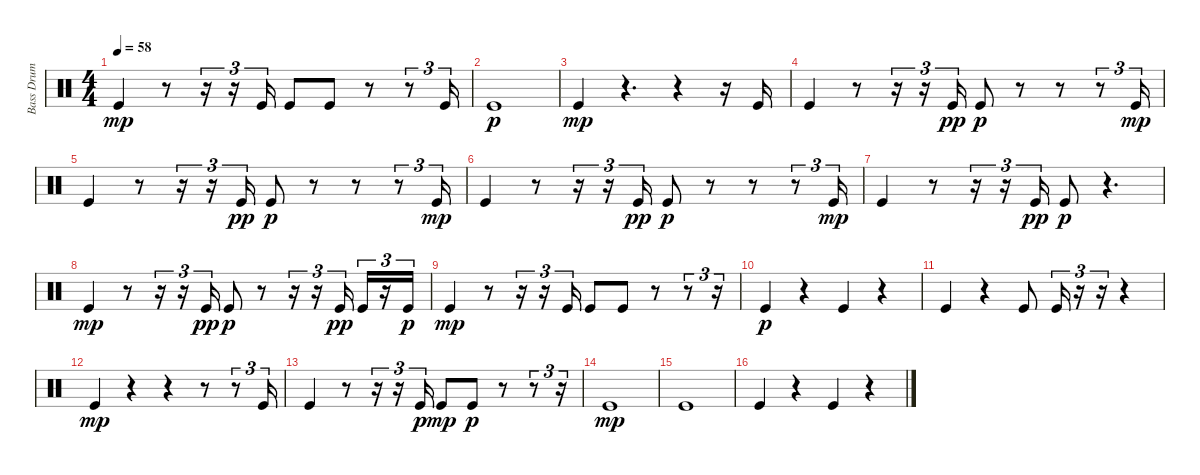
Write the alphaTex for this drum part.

\track ("Bass Drum" "Bass Drum") {instrument percussion}
\staff {score}
\articulation defaults
\ts (4 4)
\tempo 58
\clef neutral
\ks c "Kick (hit)".4{dy mp}
r.8 r.16{tu (3 2)} r.16{tu (3 2)} "Kick (hit)".16{tu (3 2)} "Kick (hit)".8 "Kick (hit)".8 r.8 r.8{tu (3 2)} "Kick (hit)".16{tu (3 2)} |
"Kick (hit)".1{dy p} |
"Kick (hit)".4{dy mp} r.4{d} r.4 r.16 "Kick (hit)".16 |
"Kick (hit)".4 r.8 r.16{tu (3 2)} r.16{tu (3 2)} "Kick (hit)".16{tu (3 2) dy pp} "Kick (hit)".8{dy p} r.8 r.8 r.8{tu (3 2)} "Kick (hit)".16{tu (3 2) dy mp} |
"Kick (hit)".4 r.8 r.16{tu (3 2)} r.16{tu (3 2)} "Kick (hit)".16{tu (3 2) dy pp} "Kick (hit)".8{dy p} r.8 r.8 r.8{tu (3 2)} "Kick (hit)".16{tu (3 2) dy mp} |
"Kick (hit)".4 r.8 r.16{tu (3 2)} r.16{tu (3 2)} "Kick (hit)".16{tu (3 2) dy pp} "Kick (hit)".8{dy p} r.8 r.8 r.8{tu (3 2)} "Kick (hit)".16{tu (3 2) dy mp} |
"Kick (hit)".4 r.8 r.16{tu (3 2)} r.16{tu (3 2)} "Kick (hit)".16{tu (3 2) dy pp} "Kick (hit)".8{dy p} r.4{d} |
"Kick (hit)".4{dy mp} r.8 r.16{tu (3 2)} r.16{tu (3 2)} "Kick (hit)".16{tu (3 2) dy pp} "Kick (hit)".8{dy p} r.8 r.16{tu (3 2)} r.16{tu (3 2)} "Kick (hit)".16{tu (3 2) dy pp} "Kick (hit)".16{tu (3 2)} r.16{tu (3 2)} "Kick (hit)".16{tu (3 2) dy p} |
"Kick (hit)".4{dy mp} r.8 r.16{tu (3 2)} r.16{tu (3 2)} "Kick (hit)".16{tu (3 2)} "Kick (hit)".8 "Kick (hit)".8 r.8 r.8{tu (3 2)} r.16{tu (3 2)} |
"Kick (hit)".4{dy p} r.4 "Kick (hit)".4 r.4 |
"Kick (hit)".4 r.4 "Kick (hit)".8 "Kick (hit)".16{tu (3 2)} r.16{tu (3 2)} r.16{tu (3 2)} r.4 |
"Kick (hit)".4{dy mp} r.4 r.4 r.8 r.8{tu (3 2)} "Kick (hit)".16{tu (3 2)} |
"Kick (hit)".4 r.8 r.16{tu (3 2)} r.16{tu (3 2)} "Kick (hit)".16{tu (3 2) dy p} "Kick (hit)".8{dy mp} "Kick (hit)".8{dy p} r.8 r.8{tu (3 2)} r.16{tu (3 2)} |
"Kick (hit)".1{dy mp} |
"Kick (hit)".1 |
"Kick (hit)".4 r.4 "Kick (hit)".4 r.4
